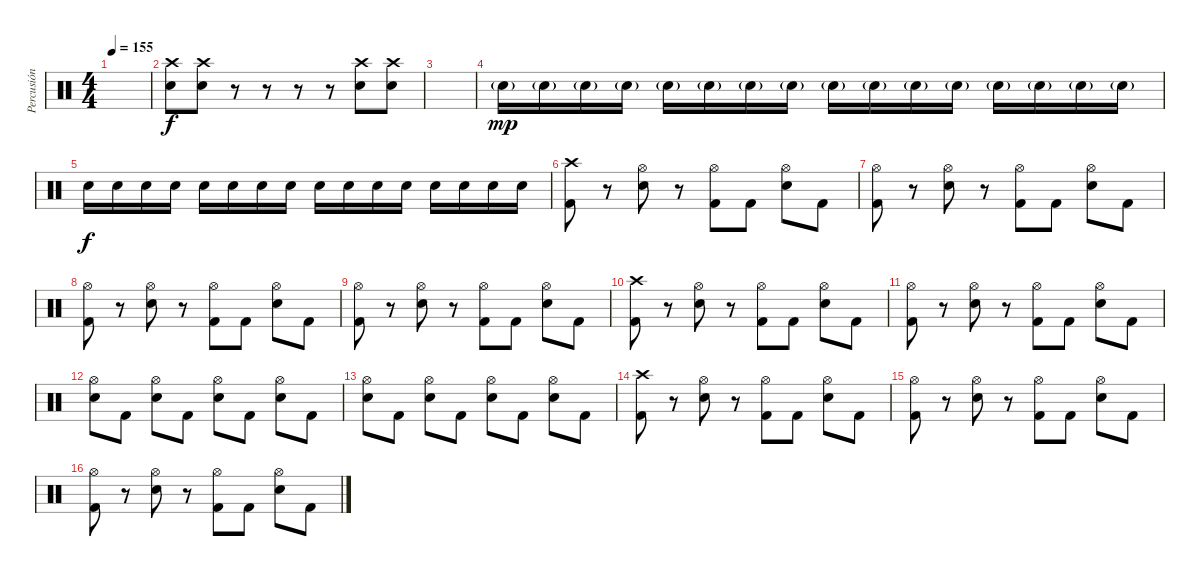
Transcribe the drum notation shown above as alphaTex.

\track ("Percusión" "Percusión") {instrument percussion}
\staff {score}
\articulation defaults
\ts (4 4)
\tempo 155
\clef neutral
\ks c
|
("Crash high (hit)" "Electric Snare (hit)").8 ("Crash high (hit)" "Electric Snare (hit)").8 r.8 r.8 r.8 r.8 ("Crash high (hit)" "Electric Snare (hit)").8 ("Crash high (hit)" "Electric Snare (hit)").8 |
|
"Electric Snare (hit)"{g}.16{dy mp} "Electric Snare (hit)"{g}.16 "Electric Snare (hit)"{g}.16 "Electric Snare (hit)"{g}.16 "Electric Snare (hit)"{g}.16 "Electric Snare (hit)"{g}.16 "Electric Snare (hit)"{g}.16 "Electric Snare (hit)"{g}.16 "Electric Snare (hit)"{g}.16 "Electric Snare (hit)"{g}.16 "Electric Snare (hit)"{g}.16 "Electric Snare (hit)"{g}.16 "Electric Snare (hit)"{g}.16 "Electric Snare (hit)"{g}.16 "Electric Snare (hit)"{g}.16 "Electric Snare (hit)"{g}.16 |
"Electric Snare (hit)".16{dy f} "Electric Snare (hit)".16 "Electric Snare (hit)".16 "Electric Snare (hit)".16 "Electric Snare (hit)".16 "Electric Snare (hit)".16 "Electric Snare (hit)".16 "Electric Snare (hit)".16 "Electric Snare (hit)".16 "Electric Snare (hit)".16 "Electric Snare (hit)".16 "Electric Snare (hit)".16 "Electric Snare (hit)".16 "Electric Snare (hit)".16 "Electric Snare (hit)".16 "Electric Snare (hit)".16 |
("Crash high (hit)" "Kick (hit) 2").8 r.8 ("Hi-Hat (open)" "Electric Snare (hit)").8 r.8 ("Hi-Hat (open)" "Kick (hit) 2").8 "Kick (hit) 2".8 ("Hi-Hat (open)" "Electric Snare (hit)").8 "Kick (hit) 2".8 |
("Hi-Hat (open)" "Kick (hit) 2").8 r.8 ("Hi-Hat (open)" "Electric Snare (hit)").8 r.8 ("Hi-Hat (open)" "Kick (hit) 2").8 "Kick (hit) 2".8 ("Hi-Hat (open)" "Electric Snare (hit)").8 "Kick (hit) 2".8 |
("Hi-Hat (open)" "Kick (hit) 2").8 r.8 ("Hi-Hat (open)" "Electric Snare (hit)").8 r.8 ("Hi-Hat (open)" "Kick (hit) 2").8 "Kick (hit) 2".8 ("Hi-Hat (open)" "Electric Snare (hit)").8 "Kick (hit) 2".8 |
("Hi-Hat (open)" "Kick (hit) 2").8 r.8 ("Hi-Hat (open)" "Electric Snare (hit)").8 r.8 ("Hi-Hat (open)" "Kick (hit) 2").8 "Kick (hit) 2".8 ("Hi-Hat (open)" "Electric Snare (hit)").8 "Kick (hit) 2".8 |
("Crash high (hit)" "Kick (hit) 2").8 r.8 ("Hi-Hat (open)" "Electric Snare (hit)").8 r.8 ("Hi-Hat (open)" "Kick (hit) 2").8 "Kick (hit) 2".8 ("Hi-Hat (open)" "Electric Snare (hit)").8 "Kick (hit) 2".8 |
("Hi-Hat (open)" "Kick (hit) 2").8 r.8 ("Hi-Hat (open)" "Electric Snare (hit)").8 r.8 ("Hi-Hat (open)" "Kick (hit) 2").8 "Kick (hit) 2".8 ("Hi-Hat (open)" "Electric Snare (hit)").8 "Kick (hit) 2".8 |
("Hi-Hat (open)" "Electric Snare (hit)").8 "Kick (hit) 2".8 ("Hi-Hat (open)" "Electric Snare (hit)").8 "Kick (hit) 2".8 ("Hi-Hat (open)" "Electric Snare (hit)").8 "Kick (hit) 2".8 ("Hi-Hat (open)" "Electric Snare (hit)").8 "Kick (hit) 2".8 |
("Hi-Hat (open)" "Electric Snare (hit)").8 "Kick (hit) 2".8 ("Hi-Hat (open)" "Electric Snare (hit)").8 "Kick (hit) 2".8 ("Hi-Hat (open)" "Electric Snare (hit)").8 "Kick (hit) 2".8 ("Hi-Hat (open)" "Electric Snare (hit)").8 "Kick (hit) 2".8 |
("Crash high (hit)" "Kick (hit) 2").8 r.8 ("Hi-Hat (open)" "Electric Snare (hit)").8 r.8 ("Hi-Hat (open)" "Kick (hit) 2").8 "Kick (hit) 2".8 ("Hi-Hat (open)" "Electric Snare (hit)").8 "Kick (hit) 2".8 |
("Hi-Hat (open)" "Kick (hit) 2").8 r.8 ("Hi-Hat (open)" "Electric Snare (hit)").8 r.8 ("Hi-Hat (open)" "Kick (hit) 2").8 "Kick (hit) 2".8 ("Hi-Hat (open)" "Electric Snare (hit)").8 "Kick (hit) 2".8 |
("Hi-Hat (open)" "Kick (hit) 2").8 r.8 ("Hi-Hat (open)" "Electric Snare (hit)").8 r.8 ("Hi-Hat (open)" "Kick (hit) 2").8 "Kick (hit) 2".8 ("Hi-Hat (open)" "Electric Snare (hit)").8 "Kick (hit) 2".8
